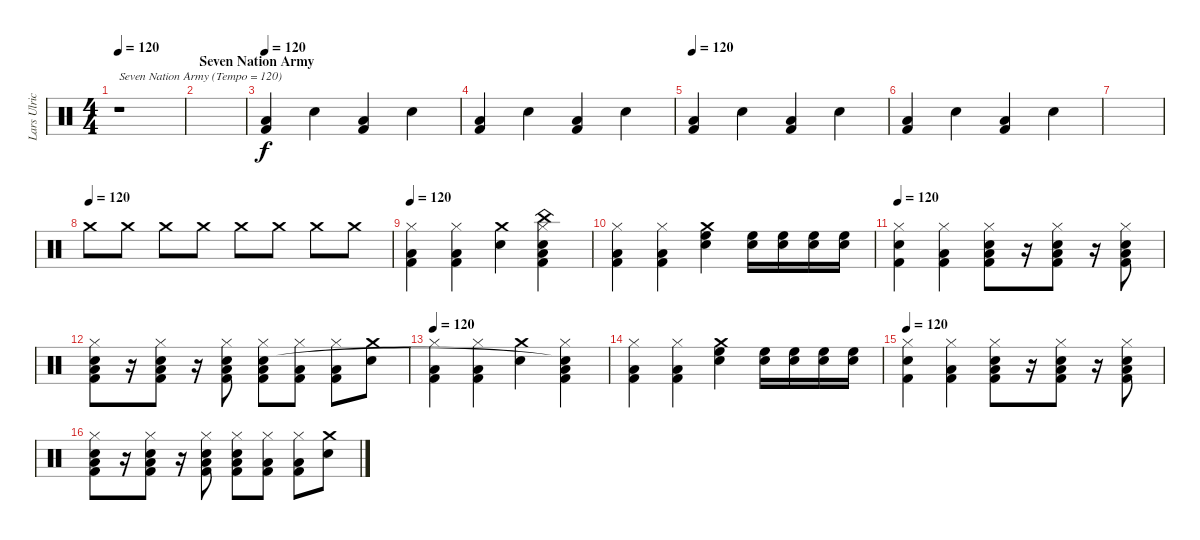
\track ("Lars Ulrich" "Lars Ulric") {instrument percussion}
\staff {score}
\articulation defaults
\ts (4 4)
\tempo 120
\clef neutral
\ks c
r.1{txt "Seven Nation Army (Tempo = 120)" dy f} |
\section ("" "Seven Nation Army ")
|
\tempo 120
("Low Floor Tom (hit)" "Kick (hit) 2").4 "Electric Snare (hit)".4 ("Low Floor Tom (hit)" "Kick (hit) 2").4 "Electric Snare (hit)".4 |
("Low Floor Tom (hit)" "Kick (hit) 2").4 "Electric Snare (hit)".4 ("Low Floor Tom (hit)" "Kick (hit) 2").4 "Electric Snare (hit)".4 |
\tempo 120
("Low Floor Tom (hit)" "Kick (hit) 2").4 "Electric Snare (hit)".4 ("Low Floor Tom (hit)" "Kick (hit) 2").4 "Electric Snare (hit)".4 |
("Low Floor Tom (hit)" "Kick (hit) 2").4 "Electric Snare (hit)".4 ("Low Floor Tom (hit)" "Kick (hit) 2").4 "Electric Snare (hit)".4 |
|
\tempo (120)
"Crash medium (hit)".8 "Crash medium (hit)".8 "Crash medium (hit)".8 "Crash medium (hit)".8 "Crash medium (hit)".8 "Crash medium (hit)".8 "Crash medium (hit)".8 "Crash medium (hit)".8 |
\tempo 120
("Hi-Hat (closed)" "Low Floor Tom (hit)" "Kick (hit) 2").4 ("Hi-Hat (closed)" "Low Floor Tom (hit)" "Kick (hit) 2").4 ("Electric Snare (hit)" "Crash medium (hit)").4 ("Hi-Hat (closed)" "Low Floor Tom (hit)" "Kick (hit) 2" "Snare (hit)" "China (hit)").4 |
("Hi-Hat (closed)" "Low Floor Tom (hit)" "Kick (hit) 2").4 ("Hi-Hat (closed)" "Low Floor Tom (hit)" "Kick (hit) 2").4 ("Electric Snare (hit)" "High Floor Tom (hit)" "Crash medium (hit)").4 ("Electric Snare (hit)" "High Floor Tom (hit)").16 ("Electric Snare (hit)" "High Floor Tom (hit)").16 ("Electric Snare (hit)" "High Floor Tom (hit)").16 ("Electric Snare (hit)" "High Floor Tom (hit)").16 |
\tempo 120
("Electric Snare (hit)" "Hi-Hat (closed)" "Kick (hit) 2").4 ("Hi-Hat (closed)" "Low Floor Tom (hit)" "Kick (hit) 2").4 ("Hi-Hat (closed)" "Low Floor Tom (hit)" "Kick (hit) 2" "Electric Snare (hit)").8 r.16 ("Hi-Hat (closed)" "Low Floor Tom (hit)" "Kick (hit) 2" "Electric Snare (hit)").8 r.16 ("Hi-Hat (closed)" "Low Floor Tom (hit)" "Kick (hit) 2" "Electric Snare (hit)").8 |
("Electric Snare (hit)" "Hi-Hat (closed)" "Kick (hit) 2" "Low Floor Tom (hit)").8 r.16 ("Hi-Hat (closed)" "Low Floor Tom (hit)" "Kick (hit) 2" "Electric Snare (hit)").8 r.16 ("Hi-Hat (closed)" "Low Floor Tom (hit)" "Kick (hit) 2" "Electric Snare (hit)").8 ("Hi-Hat (closed)" "Low Floor Tom (hit)" "Kick (hit) 2" "Electric Snare (hit)").8 ("Hi-Hat (closed)" "Low Floor Tom (hit)" "Kick (hit) 2").8 ("Hi-Hat (closed)" "Low Floor Tom (hit)" "Kick (hit) 2").8 ("Crash medium (hit)" "Electric Snare (hit)").8 |
\tempo 120
("Hi-Hat (closed)" "Low Floor Tom (hit)" "Kick (hit) 2").4 ("Hi-Hat (closed)" "Low Floor Tom (hit)" "Kick (hit) 2").4 ("Electric Snare (hit)" "Crash medium (hit)").4 ("Hi-Hat (closed)" "Low Floor Tom (hit)" "Kick (hit) 2" "Snare (hit)"{t}).4 |
("Hi-Hat (closed)" "Low Floor Tom (hit)" "Kick (hit) 2").4 ("Hi-Hat (closed)" "Low Floor Tom (hit)" "Kick (hit) 2").4 ("Electric Snare (hit)" "High Floor Tom (hit)" "Crash medium (hit)").4 ("Electric Snare (hit)" "High Floor Tom (hit)").16 ("Electric Snare (hit)" "High Floor Tom (hit)").16 ("Electric Snare (hit)" "High Floor Tom (hit)").16 ("Electric Snare (hit)" "High Floor Tom (hit)").16 |
\tempo 120
("Electric Snare (hit)" "Hi-Hat (closed)" "Kick (hit) 2").4 ("Hi-Hat (closed)" "Low Floor Tom (hit)" "Kick (hit) 2").4 ("Hi-Hat (closed)" "Low Floor Tom (hit)" "Kick (hit) 2" "Electric Snare (hit)").8 r.16 ("Hi-Hat (closed)" "Low Floor Tom (hit)" "Kick (hit) 2" "Electric Snare (hit)").8 r.16 ("Hi-Hat (closed)" "Low Floor Tom (hit)" "Kick (hit) 2" "Electric Snare (hit)").8 |
("Electric Snare (hit)" "Hi-Hat (closed)" "Kick (hit) 2" "Low Floor Tom (hit)").8 r.16 ("Hi-Hat (closed)" "Low Floor Tom (hit)" "Kick (hit) 2" "Electric Snare (hit)").8 r.16 ("Hi-Hat (closed)" "Low Floor Tom (hit)" "Kick (hit) 2" "Electric Snare (hit)").8 ("Hi-Hat (closed)" "Low Floor Tom (hit)" "Kick (hit) 2" "Electric Snare (hit)").8 ("Hi-Hat (closed)" "Low Floor Tom (hit)" "Kick (hit) 2").8 ("Hi-Hat (closed)" "Low Floor Tom (hit)" "Kick (hit) 2").8 ("Crash medium (hit)" "Electric Snare (hit)").8
